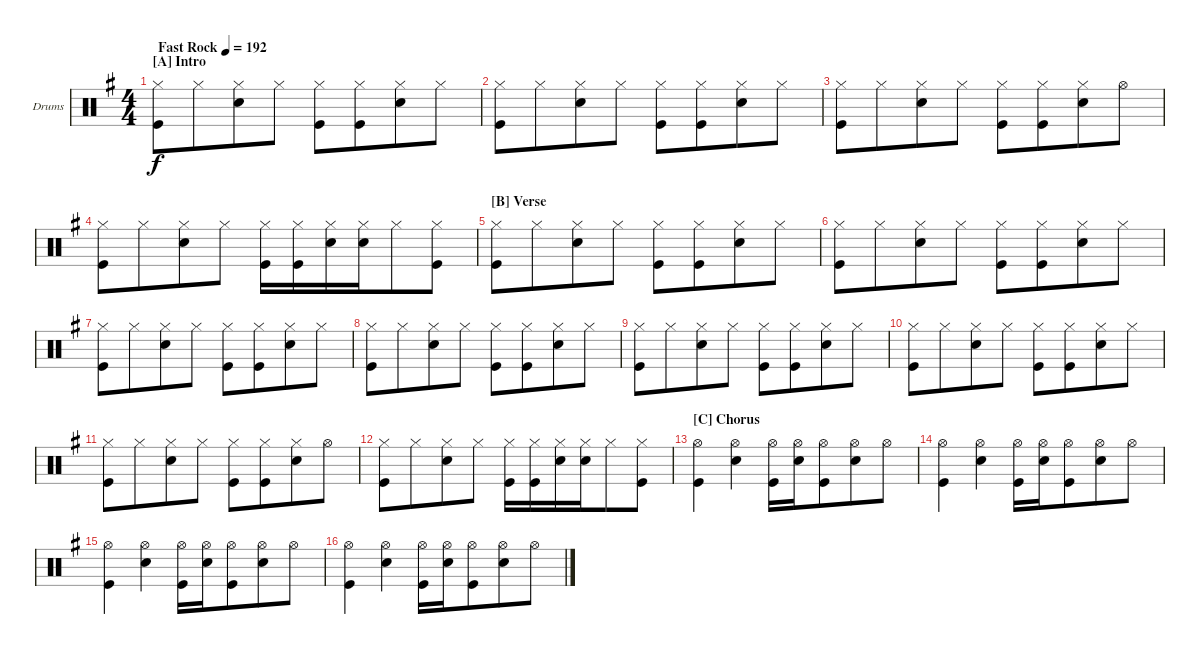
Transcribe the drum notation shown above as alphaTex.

\defaultSystemsLayout 4
\bracketExtendMode groupsimilarinstruments
\firstSystemTrackNameOrientation horizontal
\otherSystemsTrackNameOrientation horizontal
\track ("Drumkit" "Drums") {instrument percussion}
\staff {score}
\articulation defaults
\ts (4 4)
\beaming (8 4 4)
\section ("A" "Intro")
\tempo (192 "Fast Rock")
\clef neutral
\scale
1.07314
\ks g
("Hi-Hat (closed)" "Kick (hit)").8{dy f} "Hi-Hat (closed)".8 ("Hi-Hat (closed)" "Snare (hit) 2").8 "Hi-Hat (closed)".8 ("Hi-Hat (closed)" "Kick (hit)").8 ("Hi-Hat (closed)" "Kick (hit)").8 ("Hi-Hat (closed)" "Snare (hit) 2").8 "Hi-Hat (closed)".8 |
\scale
0.92686 ("Hi-Hat (closed)" "Kick (hit)").8 "Hi-Hat (closed)".8 ("Hi-Hat (closed)" "Snare (hit) 2").8 "Hi-Hat (closed)".8 ("Hi-Hat (closed)" "Kick (hit)").8 ("Hi-Hat (closed)" "Kick (hit)").8 ("Hi-Hat (closed)" "Snare (hit) 2").8 "Hi-Hat (closed)".8 |
\scale
1.04288 ("Hi-Hat (closed)" "Kick (hit)").8 "Hi-Hat (closed)".8 ("Hi-Hat (closed)" "Snare (hit) 2").8 "Hi-Hat (closed)".8 ("Hi-Hat (closed)" "Kick (hit)").8 ("Hi-Hat (closed)" "Kick (hit)").8 ("Hi-Hat (closed)" "Snare (hit) 2").8 "Hi-Hat (open)".8 |
\scale
0.957125 ("Hi-Hat (closed)" "Kick (hit)").8 "Hi-Hat (closed)".8 ("Hi-Hat (closed)" "Snare (hit) 2").8 "Hi-Hat (closed)".8 ("Hi-Hat (closed)" "Kick (hit)").16 ("Hi-Hat (closed)" "Kick (hit)").16 ("Hi-Hat (closed)" "Snare (hit) 2").16 ("Hi-Hat (closed)" "Snare (hit) 2").16 "Hi-Hat (closed)".8 ("Hi-Hat (closed)" "Kick (hit)").8 |
\section ("B" "Verse")
\scale
1.04288 ("Hi-Hat (closed)" "Kick (hit)").8 "Hi-Hat (closed)".8 ("Hi-Hat (closed)" "Snare (hit) 2").8 "Hi-Hat (closed)".8 ("Hi-Hat (closed)" "Kick (hit)").8 ("Hi-Hat (closed)" "Kick (hit)").8 ("Hi-Hat (closed)" "Snare (hit) 2").8 "Hi-Hat (closed)".8 |
\scale
0.957125 ("Hi-Hat (closed)" "Kick (hit)").8 "Hi-Hat (closed)".8 ("Hi-Hat (closed)" "Snare (hit) 2").8 "Hi-Hat (closed)".8 ("Hi-Hat (closed)" "Kick (hit)").8 ("Hi-Hat (closed)" "Kick (hit)").8 ("Hi-Hat (closed)" "Snare (hit) 2").8 "Hi-Hat (closed)".8 |
\scale
1.04288 ("Hi-Hat (closed)" "Kick (hit)").8 "Hi-Hat (closed)".8 ("Hi-Hat (closed)" "Snare (hit) 2").8 "Hi-Hat (closed)".8 ("Hi-Hat (closed)" "Kick (hit)").8 ("Hi-Hat (closed)" "Kick (hit)").8 ("Hi-Hat (closed)" "Snare (hit) 2").8 "Hi-Hat (closed)".8 |
\scale
0.957125 ("Hi-Hat (closed)" "Kick (hit)").8 "Hi-Hat (closed)".8 ("Hi-Hat (closed)" "Snare (hit) 2").8 "Hi-Hat (closed)".8 ("Hi-Hat (closed)" "Kick (hit)").8 ("Hi-Hat (closed)" "Kick (hit)").8 ("Hi-Hat (closed)" "Snare (hit) 2").8 "Hi-Hat (closed)".8 |
\scale
1.04288 ("Hi-Hat (closed)" "Kick (hit)").8 "Hi-Hat (closed)".8 ("Hi-Hat (closed)" "Snare (hit) 2").8 "Hi-Hat (closed)".8 ("Hi-Hat (closed)" "Kick (hit)").8 ("Hi-Hat (closed)" "Kick (hit)").8 ("Hi-Hat (closed)" "Snare (hit) 2").8 "Hi-Hat (closed)".8 |
\scale
0.957125 ("Hi-Hat (closed)" "Kick (hit)").8 "Hi-Hat (closed)".8 ("Hi-Hat (closed)" "Snare (hit) 2").8 "Hi-Hat (closed)".8 ("Hi-Hat (closed)" "Kick (hit)").8 ("Hi-Hat (closed)" "Kick (hit)").8 ("Hi-Hat (closed)" "Snare (hit) 2").8 "Hi-Hat (closed)".8 |
\scale
1.04288 ("Hi-Hat (closed)" "Kick (hit)").8 "Hi-Hat (closed)".8 ("Hi-Hat (closed)" "Snare (hit) 2").8 "Hi-Hat (closed)".8 ("Hi-Hat (closed)" "Kick (hit)").8 ("Hi-Hat (closed)" "Kick (hit)").8 ("Hi-Hat (closed)" "Snare (hit) 2").8 "Hi-Hat (open)".8 |
\scale
0.957125 ("Hi-Hat (closed)" "Kick (hit)").8 "Hi-Hat (closed)".8 ("Hi-Hat (closed)" "Snare (hit) 2").8 "Hi-Hat (closed)".8 ("Hi-Hat (closed)" "Kick (hit)").16 ("Hi-Hat (closed)" "Kick (hit)").16 ("Hi-Hat (closed)" "Snare (hit) 2").16 ("Hi-Hat (closed)" "Snare (hit) 2").16 "Hi-Hat (closed)".8 ("Hi-Hat (closed)" "Kick (hit)").8 |
\section ("C" "Chorus")
\scale
1.04288 ("Hi-Hat (open)" "Kick (hit)").4 ("Hi-Hat (open)" "Snare (hit) 2").4 ("Hi-Hat (open)" "Kick (hit)").16 ("Hi-Hat (open)" "Snare (hit) 2").16 ("Hi-Hat (open)" "Kick (hit)").8 ("Hi-Hat (open)" "Snare (hit) 2").8 "Hi-Hat (open)".8 |
\scale
0.957125 ("Hi-Hat (open)" "Kick (hit)").4 ("Hi-Hat (open)" "Snare (hit) 2").4 ("Hi-Hat (open)" "Kick (hit)").16 ("Hi-Hat (open)" "Snare (hit) 2").16 ("Hi-Hat (open)" "Kick (hit)").8 ("Hi-Hat (open)" "Snare (hit) 2").8 "Hi-Hat (open)".8 |
\scale
1.04288 ("Hi-Hat (open)" "Kick (hit)").4 ("Hi-Hat (open)" "Snare (hit) 2").4 ("Hi-Hat (open)" "Kick (hit)").16 ("Hi-Hat (open)" "Snare (hit) 2").16 ("Hi-Hat (open)" "Kick (hit)").8 ("Hi-Hat (open)" "Snare (hit) 2").8 "Hi-Hat (open)".8 |
\scale
0.957125 ("Hi-Hat (open)" "Kick (hit)").4 ("Hi-Hat (open)" "Snare (hit) 2").4 ("Hi-Hat (open)" "Kick (hit)").16 ("Hi-Hat (open)" "Snare (hit) 2").16 ("Hi-Hat (open)" "Kick (hit)").8 ("Hi-Hat (open)" "Snare (hit) 2").8 "Hi-Hat (open)".8
